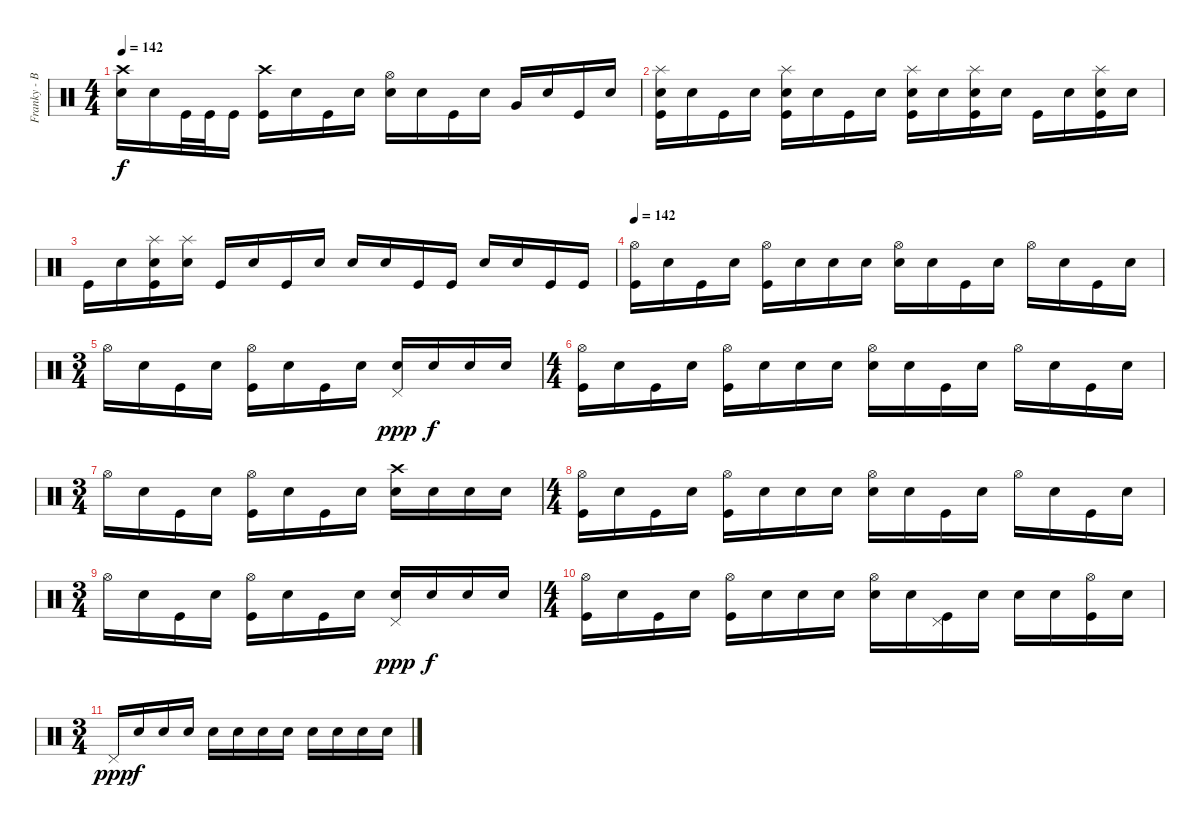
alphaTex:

\track ("Franky - Batterie" "Franky - B") {instrument percussion}
\staff {score}
\articulation defaults
\ts (4 4)
\tempo 142
\clef neutral
\ks c
("Crash high (hit)" "Electric Snare (hit)").16{dy f} "Snare (hit)".16 "Kick (hit)".32 "Kick (hit)".32 "Kick (hit)".16 ("Crash high (hit)" "Kick (hit)").16 "Snare (hit)".16 "Kick (hit)".16 "Snare (hit)".16 ("Hi-Hat (open)" "Electric Snare (hit)").16 "Snare (hit)".16 "Kick (hit)".16 "Snare (hit)".16 "Very Low Tom (hit)".16 "Snare (hit)".16 "Kick (hit)".16 "Snare (hit)".16 |
("Splash (hit)" "Electric Snare (hit)" "Kick (hit)").16 "Snare (hit)".16 "Kick (hit)".16 "Snare (hit)".16 ("Splash (hit)" "Electric Snare (hit)" "Kick (hit)").16 "Snare (hit)".16 "Kick (hit)".16 "Snare (hit)".16 ("Splash (hit)" "Electric Snare (hit)" "Kick (hit)").16 "Snare (hit)".16 ("Splash (hit)" "Electric Snare (hit)" "Kick (hit)").16 "Snare (hit)".16 "Kick (hit)".16 "Snare (hit)".16 ("Splash (hit)" "Electric Snare (hit)" "Kick (hit)").16 "Snare (hit)".16 |
"Kick (hit)".16 "Snare (hit)".16 ("Splash (hit)" "Electric Snare (hit)" "Kick (hit)").16 ("Splash (hit)" "Electric Snare (hit)").16 "Kick (hit)".16 "Snare (hit)".16 "Kick (hit)".16 "Snare (hit)".16 "Electric Snare (hit)".16 "Electric Snare (hit)".16 "Kick (hit)".16 "Kick (hit)".16 "Electric Snare (hit)".16 "Electric Snare (hit)".16 "Kick (hit)".16 "Kick (hit)".16 |
\section ("" "")
\tempo 142
("Hi-Hat (open)" "Kick (hit)").16{volume 16 balance 8} "Snare (hit)".16 "Kick (hit)".16 "Snare (hit)".16 ("Hi-Hat (open)" "Kick (hit)").16 "Snare (hit)".16 "Snare (hit)".16 "Snare (hit)".16 ("Hi-Hat (open)" "Electric Snare (hit)").16 "Snare (hit)".16 "Kick (hit)".16 "Snare (hit)".16 "Hi-Hat (open)".16 "Snare (hit)".16 "Kick (hit)".16 "Snare (hit)".16 |
\ts (3 4)
"Hi-Hat (open)".16 "Snare (hit)".16 "Kick (hit)".16 "Snare (hit)".16 ("Hi-Hat (open)" "Kick (hit)").16 "Snare (hit)".16 "Kick (hit)".16 "Snare (hit)".16 ("Pedal Hi-Hat (hit)" "Electric Snare (hit)").16{dy ppp} "Snare (hit)".16{dy f} "Snare (hit)".16 "Snare (hit)".16 |
\ts (4 4)
("Hi-Hat (open)" "Kick (hit)").16 "Snare (hit)".16 "Kick (hit)".16 "Snare (hit)".16 ("Hi-Hat (open)" "Kick (hit)").16 "Snare (hit)".16 "Snare (hit)".16 "Snare (hit)".16 ("Hi-Hat (open)" "Electric Snare (hit)").16 "Snare (hit)".16 "Kick (hit)".16 "Snare (hit)".16 "Hi-Hat (open)".16 "Snare (hit)".16 "Kick (hit)".16 "Snare (hit)".16 |
\ts (3 4)
"Hi-Hat (open)".16 "Snare (hit)".16 "Kick (hit)".16 "Snare (hit)".16 ("Hi-Hat (open)" "Kick (hit)").16 "Snare (hit)".16 "Kick (hit)".16 "Snare (hit)".16 ("Crash high (hit)" "Electric Snare (hit)").16 "Snare (hit)".16 "Snare (hit)".16 "Snare (hit)".16 |
\ts (4 4)
("Hi-Hat (open)" "Kick (hit)").16 "Snare (hit)".16 "Kick (hit)".16 "Snare (hit)".16 ("Hi-Hat (open)" "Kick (hit)").16 "Snare (hit)".16 "Snare (hit)".16 "Snare (hit)".16 ("Hi-Hat (open)" "Electric Snare (hit)").16 "Snare (hit)".16 "Kick (hit)".16 "Snare (hit)".16 "Hi-Hat (open)".16 "Snare (hit)".16 "Kick (hit)".16 "Snare (hit)".16 |
\ts (3 4)
"Hi-Hat (open)".16 "Snare (hit)".16 "Kick (hit)".16 "Snare (hit)".16 ("Hi-Hat (open)" "Kick (hit)").16 "Snare (hit)".16 "Kick (hit)".16 "Snare (hit)".16 ("Pedal Hi-Hat (hit)" "Electric Snare (hit)").16{dy ppp} "Snare (hit)".16{dy f} "Snare (hit)".16 "Snare (hit)".16 |
\ts (4 4)
("Hi-Hat (open)" "Kick (hit)").16 "Snare (hit)".16 "Kick (hit)".16 "Snare (hit)".16 ("Hi-Hat (open)" "Kick (hit)").16 "Snare (hit)".16 "Snare (hit)".16 "Snare (hit)".16 ("Hi-Hat (open)" "Electric Snare (hit)").16 "Snare (hit)".16 ("Pedal Hi-Hat (hit)" "Kick (hit)").16 "Snare (hit)".16 "Snare (hit)".16 "Snare (hit)".16 ("Hi-Hat (open)" "Kick (hit)").16 "Snare (hit)".16 |
\ts (3 4)
"Pedal Hi-Hat (hit)".16{dy ppp} "Snare (hit)".16{dy f} "Snare (hit)".16 "Snare (hit)".16 "Snare (hit)".16 "Snare (hit)".16 "Snare (hit)".16 "Snare (hit)".16 "Snare (hit)".16 "Snare (hit)".16 "Snare (hit)".16 "Snare (hit)".16
